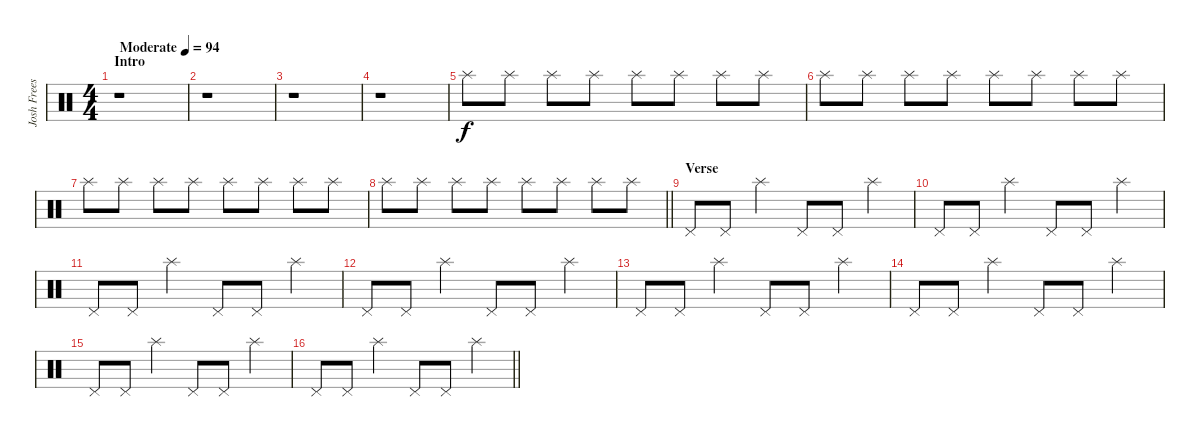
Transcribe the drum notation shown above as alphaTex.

\track ("Josh Freese (Studio Drummer)" "Josh Frees") {instrument percussion}
\staff {score}
\articulation defaults
\ts (4 4)
\section ("" "Intro")
\tempo (94 "Moderate")
\clef neutral
\ks c
r.1{dy f} |
r.1 |
r.1 |
r.1 |
"Splash (hit)".8 "Splash (hit)".8 "Splash (hit)".8 "Splash (hit)".8 "Splash (hit)".8 "Splash (hit)".8 "Splash (hit)".8 "Splash (hit)".8 |
"Splash (hit)".8 "Splash (hit)".8 "Splash (hit)".8 "Splash (hit)".8 "Splash (hit)".8 "Splash (hit)".8 "Splash (hit)".8 "Splash (hit)".8 |
"Splash (hit)".8 "Splash (hit)".8 "Splash (hit)".8 "Splash (hit)".8 "Splash (hit)".8 "Splash (hit)".8 "Splash (hit)".8 "Splash (hit)".8 |
\barLineRight lightlight "Splash (hit)".8 "Splash (hit)".8 "Splash (hit)".8 "Splash (hit)".8 "Splash (hit)".8 "Splash (hit)".8 "Splash (hit)".8 "Splash (hit)".8
|
\section ("" "Verse")
"Pedal Hi-Hat (hit)".8 "Pedal Hi-Hat (hit)".8 "Splash (hit)".4 "Pedal Hi-Hat (hit)".8 "Pedal Hi-Hat (hit)".8 "Splash (hit)".4 |
"Pedal Hi-Hat (hit)".8 "Pedal Hi-Hat (hit)".8 "Splash (hit)".4 "Pedal Hi-Hat (hit)".8 "Pedal Hi-Hat (hit)".8 "Splash (hit)".4 |
"Pedal Hi-Hat (hit)".8 "Pedal Hi-Hat (hit)".8 "Splash (hit)".4 "Pedal Hi-Hat (hit)".8 "Pedal Hi-Hat (hit)".8 "Splash (hit)".4 |
"Pedal Hi-Hat (hit)".8 "Pedal Hi-Hat (hit)".8 "Splash (hit)".4 "Pedal Hi-Hat (hit)".8 "Pedal Hi-Hat (hit)".8 "Splash (hit)".4 |
"Pedal Hi-Hat (hit)".8 "Pedal Hi-Hat (hit)".8 "Splash (hit)".4 "Pedal Hi-Hat (hit)".8 "Pedal Hi-Hat (hit)".8 "Splash (hit)".4 |
"Pedal Hi-Hat (hit)".8 "Pedal Hi-Hat (hit)".8 "Splash (hit)".4 "Pedal Hi-Hat (hit)".8 "Pedal Hi-Hat (hit)".8 "Splash (hit)".4 |
"Pedal Hi-Hat (hit)".8 "Pedal Hi-Hat (hit)".8 "Splash (hit)".4 "Pedal Hi-Hat (hit)".8 "Pedal Hi-Hat (hit)".8 "Splash (hit)".4 |
\barLineRight lightlight "Pedal Hi-Hat (hit)".8 "Pedal Hi-Hat (hit)".8 "Splash (hit)".4 "Pedal Hi-Hat (hit)".8 "Pedal Hi-Hat (hit)".8 "Splash (hit)".4
